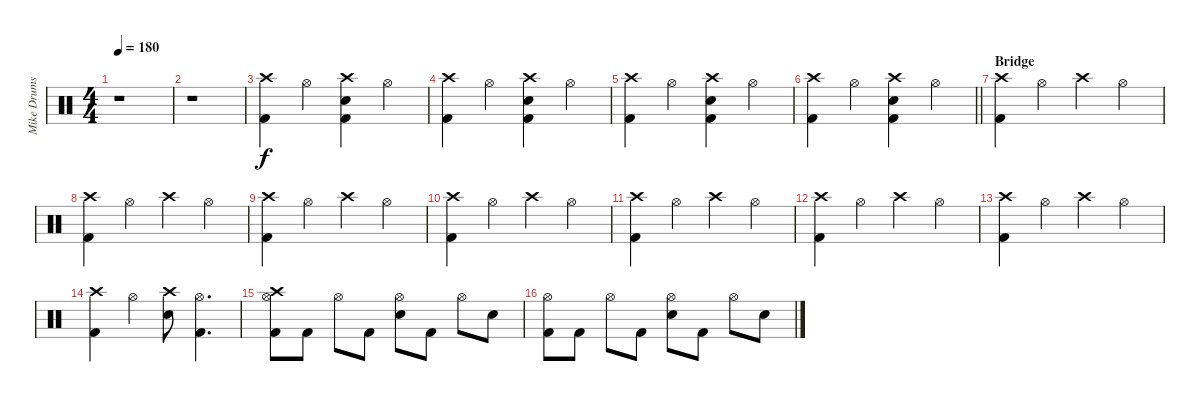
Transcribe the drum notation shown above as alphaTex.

\track ("Mike Drums" "Mike Drums") {instrument percussion}
\staff {score}
\articulation defaults
\ts (4 4)
\tempo 180
\clef neutral
\ks c
r.1{dy f} |
r.1 |
("Crash high (hit)" "Kick (hit) 2").4 "Hi-Hat (open)".4 ("Crash high (hit)" "Snare (hit) 2" "Kick (hit) 2").4 "Hi-Hat (open)".4 |
("Crash high (hit)" "Kick (hit) 2").4 "Hi-Hat (open)".4 ("Crash high (hit)" "Snare (hit) 2" "Kick (hit) 2").4 "Hi-Hat (open)".4 |
("Crash high (hit)" "Kick (hit) 2").4 "Hi-Hat (open)".4 ("Crash high (hit)" "Snare (hit) 2" "Kick (hit) 2").4 "Hi-Hat (open)".4 |
\barLineRight lightlight
("Crash high (hit)" "Kick (hit) 2").4 "Hi-Hat (open)".4 ("Crash high (hit)" "Snare (hit) 2" "Kick (hit) 2").4 "Hi-Hat (open)".4 |
\section ("" "Bridge")
("Crash high (hit)" "Kick (hit) 2").4 "Hi-Hat (open)".4 "Crash high (hit)".4 "Hi-Hat (open)".4 |
("Crash high (hit)" "Kick (hit) 2").4 "Hi-Hat (open)".4 "Crash high (hit)".4 "Hi-Hat (open)".4 |
("Crash high (hit)" "Kick (hit) 2").4 "Hi-Hat (open)".4 "Crash high (hit)".4 "Hi-Hat (open)".4 |
("Crash high (hit)" "Kick (hit) 2").4 "Hi-Hat (open)".4 "Crash high (hit)".4 "Hi-Hat (open)".4 |
("Crash high (hit)" "Kick (hit) 2").4 "Hi-Hat (open)".4 "Crash high (hit)".4 "Hi-Hat (open)".4 |
("Crash high (hit)" "Kick (hit) 2").4 "Hi-Hat (open)".4 "Crash high (hit)".4 "Hi-Hat (open)".4 |
("Crash high (hit)" "Kick (hit) 2").4 "Hi-Hat (open)".4 "Crash high (hit)".4 "Hi-Hat (open)".4 |
("Crash high (hit)" "Kick (hit) 2").4 "Hi-Hat (open)".4 ("Crash high (hit)" "Snare (hit) 2").8 ("Hi-Hat (open)" "Kick (hit) 2").4{d} |
("Crash high (hit)" "Hi-Hat (open)" "Kick (hit) 2").8 "Kick (hit) 2".8 "Hi-Hat (open)".8 "Kick (hit) 2".8 ("Hi-Hat (open)" "Snare (hit) 2").8 "Kick (hit) 2".8 "Hi-Hat (open)".8 "Snare (hit) 2".8 |
("Hi-Hat (open)" "Kick (hit) 2").8 "Kick (hit) 2".8 "Hi-Hat (open)".8 "Kick (hit) 2".8 ("Hi-Hat (open)" "Snare (hit) 2").8 "Kick (hit) 2".8 "Hi-Hat (open)".8 "Snare (hit) 2".8
